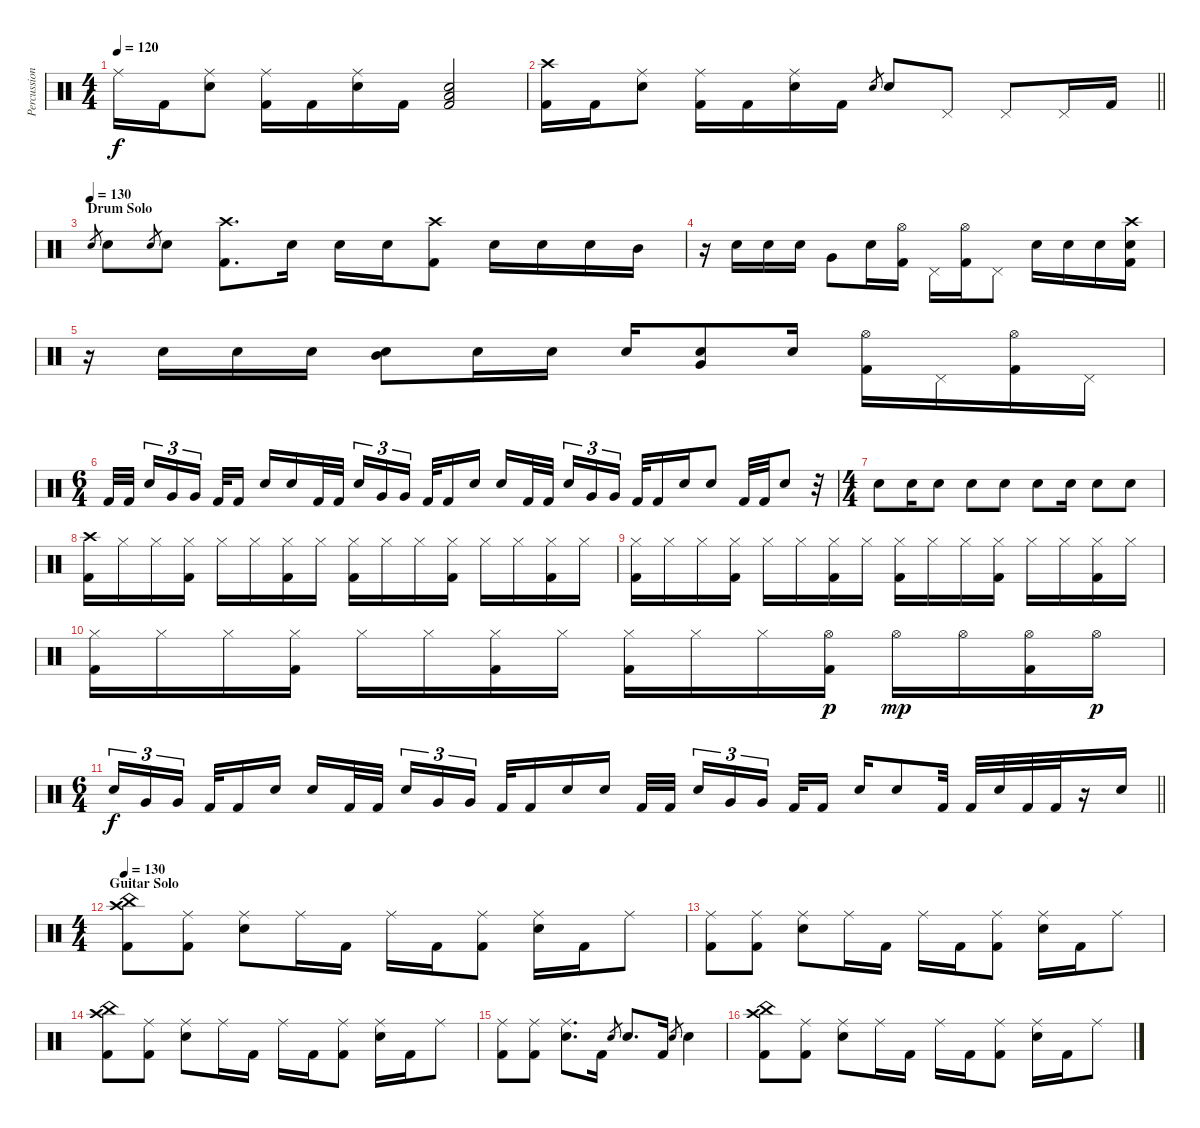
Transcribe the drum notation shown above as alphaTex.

\track ("Percussion" "Percussion") {instrument percussion}
\staff {score}
\articulation defaults
\ts (4 4)
\tempo 120
\clef neutral
\ks c "Ride (middle)".16{dy f} "Kick (hit) 2".16
("Snare (hit) 2" "Ride (middle)").8 ("Kick (hit) 2" "Ride (middle)").16 "Kick (hit) 2".16 ("Snare (hit) 2" "Ride (middle)").16 "Kick (hit) 2".16 ("Snare (hit) 2" "Low Floor Tom (hit)" "Kick (hit) 2").2 |
\barLineRight lightlight
("Kick (hit) 2" "Crash high (hit)").16 "Kick (hit) 2".16 ("Snare (hit) 2" "Ride (middle)").8 ("Kick (hit) 2" "Ride (middle)").16 "Kick (hit) 2".16 ("Snare (hit) 2" "Ride (middle)").16 "Kick (hit) 2".16 "Snare (hit) 2".8{gr} "Snare (hit) 2".8 "Pedal Hi-Hat (hit)".8 "Pedal Hi-Hat (hit)".8 "Pedal Hi-Hat (hit)".16 "Kick (hit) 2".16 |
\section ("" "Drum Solo")
\tempo (130)
"Snare (hit) 2".8{gr} "Snare (hit) 2".8 "Snare (hit) 2".8{gr} "Snare (hit) 2".8 ("Kick (hit) 2" "Crash high (hit)").8{d} "Snare (hit) 2".16 "Snare (hit) 2".16 "Snare (hit) 2".16 ("Kick (hit) 2" "Crash high (hit)").8 "Snare (hit) 2".16 "Snare (hit) 2".16 "Snare (hit) 2".16 "Mid Tom (hit)".16 |
r.16 "Snare (hit) 2".16 "Snare (hit) 2".16 "Snare (hit) 2".16 "Very Low Tom (hit)".8 "Snare (hit) 2".16 ("Kick (hit) 2" "Hi-Hat (open)").16 "Pedal Hi-Hat (hit)".16 ("Kick (hit) 2" "Hi-Hat (open)").16 "Pedal Hi-Hat (hit)".8 "Snare (hit) 2".16 "Snare (hit) 2".16 "Snare (hit) 2".16 ("Snare (hit) 2" "Kick (hit) 2" "Crash high (hit)").16 |
r.16 "Snare (hit) 2".16 "Snare (hit) 2".16 "Snare (hit) 2".16 ("Snare (hit) 2" "Mid Tom (hit)").8 "Snare (hit) 2".16 "Snare (hit) 2".16 "Snare (hit) 2".16 ("Snare (hit) 2" "Very Low Tom (hit)").8 "Snare (hit) 2".16 ("Kick (hit) 2" "Hi-Hat (open)").16 "Pedal Hi-Hat (hit)".16 ("Kick (hit) 2" "Hi-Hat (open)").16 "Pedal Hi-Hat (hit)".16 |
\ts (6 4)
"Kick (hit) 2".32 "Kick (hit) 2".32{beam splitsecondary} "Snare (hit) 2".16{tu (3 2)} "Very Low Tom (hit)".16{tu (3 2)} "Very Low Tom (hit)".16{tu (3 2) beam splitsecondary} "Kick (hit) 2".32 "Kick (hit) 2".16 "Snare (hit) 2".16 "Snare (hit) 2".16 "Kick (hit) 2".32 "Kick (hit) 2".32{beam splitsecondary} "Snare (hit) 2".16{tu (3 2)} "Very Low Tom (hit)".16{tu (3 2)} "Very Low Tom (hit)".16{tu (3 2) beam splitsecondary} "Kick (hit) 2".32 "Kick (hit) 2".16 "Snare (hit) 2".16 "Snare (hit) 2".16 "Kick (hit) 2".32 "Kick (hit) 2".32{beam splitsecondary} "Snare (hit) 2".16{tu (3 2)} "Very Low Tom (hit)".16{tu (3 2)} "Very Low Tom (hit)".16{tu (3 2) beam splitsecondary} "Kick (hit) 2".32 "Kick (hit) 2".16 "Snare (hit) 2".16 "Snare (hit) 2".8 "Kick (hit) 2".32 "Kick (hit) 2".32 "Snare (hit) 2".8 r.32 |
\ts (4 4)
"Snare (hit) 2".8 "Snare (hit) 2".16 "Snare (hit) 2".8 "Snare (hit) 2".8 "Snare (hit) 2".8 "Snare (hit) 2".8 "Snare (hit) 2".16 "Snare (hit) 2".8 "Snare (hit) 2".8 |
("Crash high (hit)" "Kick (hit) 2").16 "Hi-Hat (closed)".16 "Hi-Hat (closed)".16 ("Hi-Hat (closed)" "Kick (hit) 2").16 "Hi-Hat (closed)".16 "Hi-Hat (closed)".16 ("Hi-Hat (closed)" "Kick (hit) 2").16 "Hi-Hat (closed)".16 ("Hi-Hat (closed)" "Kick (hit) 2").16 "Hi-Hat (closed)".16 "Hi-Hat (closed)".16 ("Hi-Hat (closed)" "Kick (hit) 2").16 "Hi-Hat (closed)".16 "Hi-Hat (closed)".16 ("Hi-Hat (closed)" "Kick (hit) 2").16 "Hi-Hat (closed)".16 |
("Hi-Hat (closed)" "Kick (hit) 2").16 "Hi-Hat (closed)".16 "Hi-Hat (closed)".16 ("Hi-Hat (closed)" "Kick (hit) 2").16 "Hi-Hat (closed)".16 "Hi-Hat (closed)".16 ("Hi-Hat (closed)" "Kick (hit) 2").16 "Hi-Hat (closed)".16 ("Hi-Hat (closed)" "Kick (hit) 2").16 "Hi-Hat (closed)".16 "Hi-Hat (closed)".16 ("Hi-Hat (closed)" "Kick (hit) 2").16 "Hi-Hat (closed)".16 "Hi-Hat (closed)".16 ("Hi-Hat (closed)" "Kick (hit) 2").16 "Hi-Hat (closed)".16 |
("Hi-Hat (closed)" "Kick (hit) 2").16 "Hi-Hat (closed)".16 "Hi-Hat (closed)".16 ("Hi-Hat (closed)" "Kick (hit) 2").16 "Hi-Hat (closed)".16 "Hi-Hat (closed)".16 ("Hi-Hat (closed)" "Kick (hit) 2").16 "Hi-Hat (closed)".16 ("Hi-Hat (closed)" "Kick (hit) 2").16 "Hi-Hat (closed)".16 "Hi-Hat (closed)".16 ("Hi-Hat (open)" "Kick (hit) 2").16{dy p} "Hi-Hat (open)".16{dy mp} "Hi-Hat (open)".16 ("Hi-Hat (open)" "Kick (hit) 2").16 "Hi-Hat (open)".16{dy p} |
\ts (6 4)
\barLineRight lightlight "Snare (hit) 2".16{tu (3 2) dy f} "Very Low Tom (hit)".16{tu (3 2)} "Very Low Tom (hit)".16{tu (3 2) beam splitsecondary} "Kick (hit) 2".32 "Kick (hit) 2".16 "Snare (hit) 2".16 "Snare (hit) 2".16 "Kick (hit) 2".32 "Kick (hit) 2".32{beam splitsecondary} "Snare (hit) 2".16{tu (3 2)} "Very Low Tom (hit)".16{tu (3 2)} "Very Low Tom (hit)".16{tu (3 2) beam splitsecondary} "Kick (hit) 2".32 "Kick (hit) 2".16 "Snare (hit) 2".16 "Snare (hit) 2".16 "Kick (hit) 2".32 "Kick (hit) 2".32{beam splitsecondary} "Snare (hit) 2".16{tu (3 2)} "Very Low Tom (hit)".16{tu (3 2)} "Very Low Tom (hit)".16{tu (3 2) beam splitsecondary} "Kick (hit) 2".32 "Kick (hit) 2".16 "Snare (hit) 2".16 "Snare (hit) 2".8 "Kick (hit) 2".32 "Kick (hit) 2".32 "Snare (hit) 2".32 "Kick (hit) 2".32 "Kick (hit) 2".32
r.16 "Snare (hit) 2".16 |
\ts (4 4)
\section ("" "Guitar Solo")
\tempo 130
("Kick (hit) 2" "Crash high (hit)" "China (hit)").8 ("Kick (hit) 2" "Ride (middle)").8 ("Snare (hit) 2" "Ride (middle)").8 "Ride (middle)".16 "Kick (hit) 2".16 "Ride (middle)".16 "Kick (hit) 2".16 ("Kick (hit) 2" "Ride (middle)").8 ("Snare (hit) 2" "Ride (middle)").16 "Kick (hit) 2".16 "Ride (middle)".8 |
("Kick (hit) 2" "Ride (middle)").8 ("Kick (hit) 2" "Ride (middle)").8 ("Snare (hit) 2" "Ride (middle)").8 "Ride (middle)".16 "Kick (hit) 2".16 "Ride (middle)".16 "Kick (hit) 2".16 ("Kick (hit) 2" "Ride (middle)").8 ("Snare (hit) 2" "Ride (middle)").16 "Kick (hit) 2".16 "Ride (middle)".8 |
("Kick (hit) 2" "Crash high (hit)" "China (hit)").8 ("Kick (hit) 2" "Ride (middle)").8 ("Snare (hit) 2" "Ride (middle)").8 "Ride (middle)".16 "Kick (hit) 2".16 "Ride (middle)".16 "Kick (hit) 2".16 ("Kick (hit) 2" "Ride (middle)").8 ("Snare (hit) 2" "Ride (middle)").16 "Kick (hit) 2".16 "Ride (middle)".8 |
("Kick (hit) 2" "Ride (middle)").8 ("Kick (hit) 2" "Ride (middle)").8 ("Snare (hit) 2" "Ride (middle)").8{d} "Kick (hit) 2".16 "Snare (hit) 2".8{gr} "Snare (hit) 2".8{d} "Kick (hit) 2".16 "Snare (hit) 2".8{gr} "Snare (hit) 2".4 |
("Kick (hit) 2" "Crash high (hit)" "China (hit)").8 ("Kick (hit) 2" "Ride (middle)").8 ("Snare (hit) 2" "Ride (middle)").8 "Ride (middle)".16 "Kick (hit) 2".16 "Ride (middle)".16 "Kick (hit) 2".16 ("Kick (hit) 2" "Ride (middle)").8 ("Snare (hit) 2" "Ride (middle)").16 "Kick (hit) 2".16 "Ride (middle)".8
